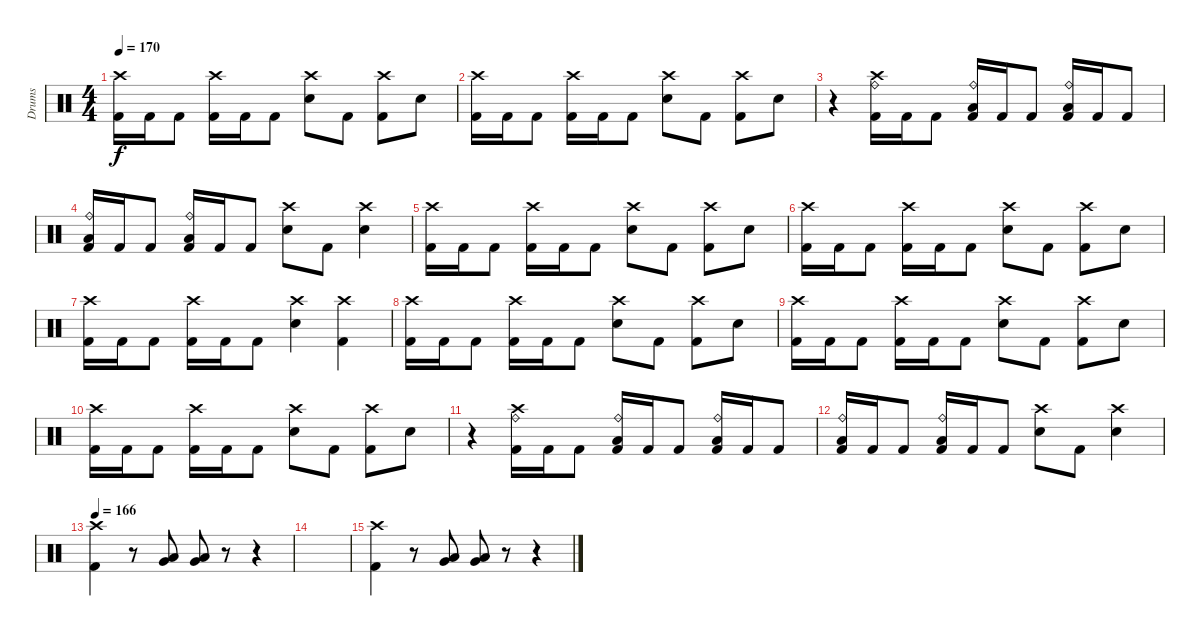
\track ("Drums" "Drums") {instrument percussion}
\staff {score}
\articulation defaults
\ts (4 4)
\tempo 170
\clef neutral
\ks c
("Crash high (hit)" "Kick (hit) 2").16{dy f} "Kick (hit) 2".16 "Kick (hit) 2".8 ("Crash high (hit)" "Kick (hit) 2").16 "Kick (hit) 2".16 "Kick (hit) 2".8 ("Crash high (hit)" "Electric Snare (hit)").8 "Kick (hit) 2".8 ("Crash high (hit)" "Kick (hit) 2").8 "Electric Snare (hit)".8 |
("Crash high (hit)" "Kick (hit) 2").16 "Kick (hit) 2".16 "Kick (hit) 2".8 ("Crash high (hit)" "Kick (hit) 2").16 "Kick (hit) 2".16 "Kick (hit) 2".8 ("Crash high (hit)" "Electric Snare (hit)").8 "Kick (hit) 2".8 ("Crash high (hit)" "Kick (hit) 2").8 "Electric Snare (hit)".8 |
r.4 ("Crash high (hit)" "Ride (bell)" "Kick (hit) 2").16 "Kick (hit) 2".16 "Kick (hit) 2".8 ("Ride (bell)" "Low Floor Tom (hit)" "Kick (hit) 2").16 "Kick (hit) 2".16 "Kick (hit) 2".8 ("Ride (bell)" "Low Floor Tom (hit)" "Kick (hit) 2").16 "Kick (hit) 2".16 "Kick (hit) 2".8 |
("Ride (bell)" "Low Floor Tom (hit)" "Kick (hit) 2").16 "Kick (hit) 2".16 "Kick (hit) 2".8 ("Ride (bell)" "Low Floor Tom (hit)" "Kick (hit) 2").16 "Kick (hit) 2".16 "Kick (hit) 2".8 ("Crash high (hit)" "Electric Snare (hit)").8 "Kick (hit) 2".8 ("Crash high (hit)" "Electric Snare (hit)").4 |
("Crash high (hit)" "Kick (hit) 2").16 "Kick (hit) 2".16 "Kick (hit) 2".8 ("Crash high (hit)" "Kick (hit) 2").16 "Kick (hit) 2".16 "Kick (hit) 2".8 ("Crash high (hit)" "Electric Snare (hit)").8 "Kick (hit) 2".8 ("Crash high (hit)" "Kick (hit) 2").8 "Electric Snare (hit)".8 |
("Crash high (hit)" "Kick (hit) 2").16 "Kick (hit) 2".16 "Kick (hit) 2".8 ("Crash high (hit)" "Kick (hit) 2").16 "Kick (hit) 2".16 "Kick (hit) 2".8 ("Crash high (hit)" "Electric Snare (hit)").8 "Kick (hit) 2".8 ("Crash high (hit)" "Kick (hit) 2").8 "Electric Snare (hit)".8 |
("Crash high (hit)" "Kick (hit) 2").16 "Kick (hit) 2".16 "Kick (hit) 2".8 ("Crash high (hit)" "Kick (hit) 2").16 "Kick (hit) 2".16 "Kick (hit) 2".8 ("Crash high (hit)" "Electric Snare (hit)").4 ("Crash high (hit)" "Kick (hit) 2").4 |
("Crash high (hit)" "Kick (hit) 2").16 "Kick (hit) 2".16 "Kick (hit) 2".8 ("Crash high (hit)" "Kick (hit) 2").16 "Kick (hit) 2".16 "Kick (hit) 2".8 ("Crash high (hit)" "Electric Snare (hit)").8 "Kick (hit) 2".8 ("Crash high (hit)" "Kick (hit) 2").8 "Electric Snare (hit)".8 |
("Crash high (hit)" "Kick (hit) 2").16 "Kick (hit) 2".16 "Kick (hit) 2".8 ("Crash high (hit)" "Kick (hit) 2").16 "Kick (hit) 2".16 "Kick (hit) 2".8 ("Crash high (hit)" "Electric Snare (hit)").8 "Kick (hit) 2".8 ("Crash high (hit)" "Kick (hit) 2").8 "Electric Snare (hit)".8 |
("Crash high (hit)" "Kick (hit) 2").16 "Kick (hit) 2".16 "Kick (hit) 2".8 ("Crash high (hit)" "Kick (hit) 2").16 "Kick (hit) 2".16 "Kick (hit) 2".8 ("Crash high (hit)" "Electric Snare (hit)").8 "Kick (hit) 2".8 ("Crash high (hit)" "Kick (hit) 2").8 "Electric Snare (hit)".8 |
r.4 ("Crash high (hit)" "Ride (bell)" "Kick (hit) 2").16 "Kick (hit) 2".16 "Kick (hit) 2".8 ("Ride (bell)" "Low Floor Tom (hit)" "Kick (hit) 2").16 "Kick (hit) 2".16 "Kick (hit) 2".8 ("Ride (bell)" "Low Floor Tom (hit)" "Kick (hit) 2").16 "Kick (hit) 2".16 "Kick (hit) 2".8 |
("Ride (bell)" "Low Floor Tom (hit)" "Kick (hit) 2").16 "Kick (hit) 2".16 "Kick (hit) 2".8 ("Ride (bell)" "Low Floor Tom (hit)" "Kick (hit) 2").16 "Kick (hit) 2".16 "Kick (hit) 2".8 ("Crash high (hit)" "Electric Snare (hit)").8 "Kick (hit) 2".8 ("Crash high (hit)" "Electric Snare (hit)").4 |
\tempo 166
("Crash high (hit)" "Kick (hit) 2").4 r.8 ("Low Tom (hit)" "Very Low Tom (hit)").8 ("Low Tom (hit)" "Very Low Tom (hit)").8 r.8 r.4 |
|
("Crash high (hit)" "Kick (hit) 2").4 r.8 ("Low Tom (hit)" "Very Low Tom (hit)").8 ("Low Tom (hit)" "Very Low Tom (hit)").8 r.8 r.4
